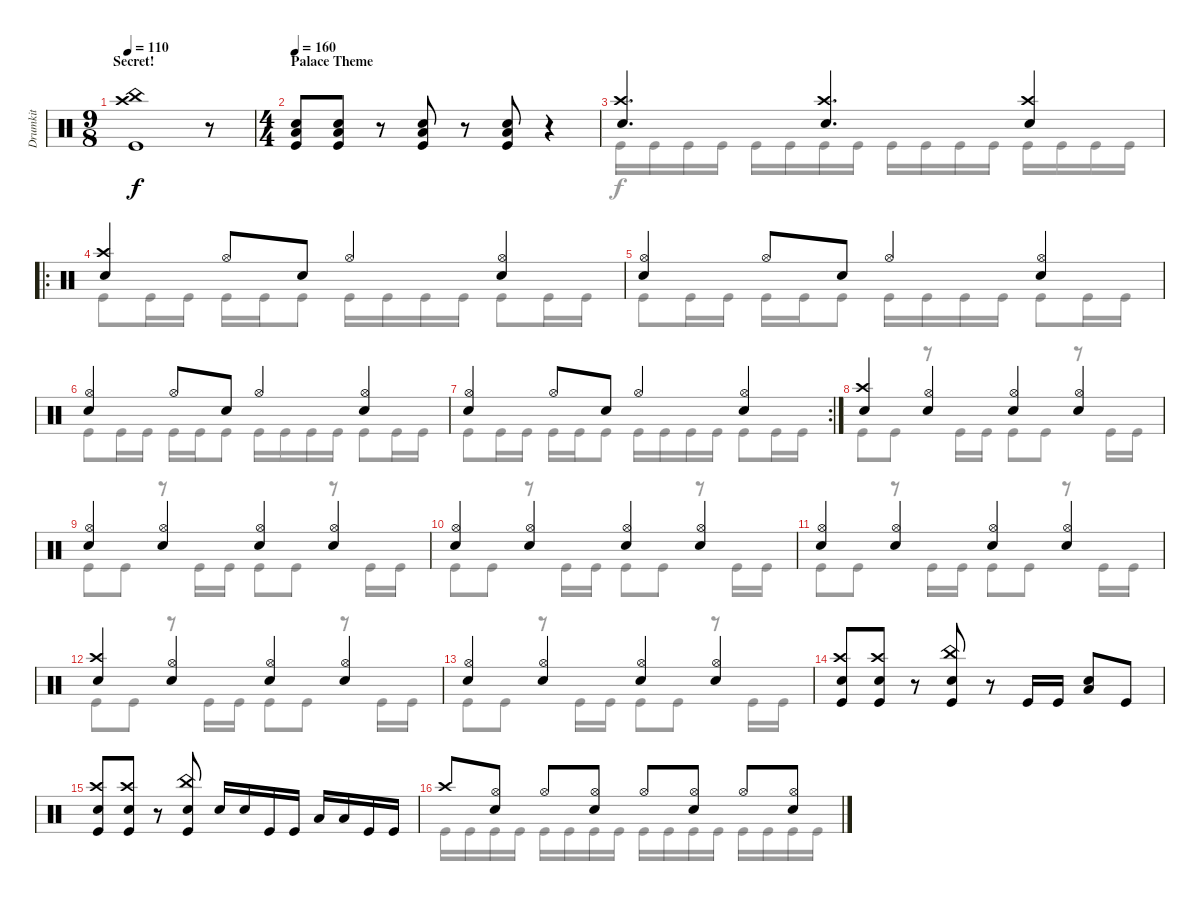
\track ("Drumkit" "Drumkit") {instrument percussion}
\staff {score}
\articulation defaults
\voice
\ts (9 8)
\section ("" "Secret!")
\tempo 110
\clef neutral
\ks c
("Kick (hit)" "Crash high (hit)" "China (hit)").1{dy f} r.8 |
\ts (4 4)
\section ("" "Palace Theme")
\tempo 160
("Kick (hit)" "Snare (hit) 2" "Low Floor Tom (hit)").8 ("Kick (hit)" "Snare (hit) 2" "Low Floor Tom (hit)").8 r.8 ("Kick (hit)" "Snare (hit) 2" "Low Floor Tom (hit)").8 r.8 ("Kick (hit)" "Snare (hit) 2" "Low Floor Tom (hit)").8 r.4 |
("Snare (hit) 2" "Crash high (hit)").4{d} ("Snare (hit) 2" "Crash high (hit)").4{d} ("Snare (hit) 2" "Crash high (hit)").4 |
\ro
("Crash high (hit)" "Snare (hit) 2").4 "Hi-Hat (open)".8 "Snare (hit) 2".8 "Hi-Hat (open)".4 ("Hi-Hat (open)" "Snare (hit) 2").4 |
("Hi-Hat (open)" "Snare (hit) 2").4 "Hi-Hat (open)".8 "Snare (hit) 2".8 "Hi-Hat (open)".4 ("Hi-Hat (open)" "Snare (hit) 2").4 |
("Hi-Hat (open)" "Snare (hit) 2").4 "Hi-Hat (open)".8 "Snare (hit) 2".8 "Hi-Hat (open)".4 ("Hi-Hat (open)" "Snare (hit) 2").4 |
\rc 2
("Hi-Hat (open)" "Snare (hit) 2").4 "Hi-Hat (open)".8 "Snare (hit) 2".8 "Hi-Hat (open)".4 ("Hi-Hat (open)" "Snare (hit) 2").4 |
("Snare (hit) 2" "Crash high (hit)").4 ("Snare (hit) 2" "Hi-Hat (open)").4 ("Snare (hit) 2" "Hi-Hat (open)").4 ("Snare (hit) 2" "Hi-Hat (open)").4 |
("Snare (hit) 2" "Hi-Hat (open)").4 ("Snare (hit) 2" "Hi-Hat (open)").4 ("Snare (hit) 2" "Hi-Hat (open)").4 ("Snare (hit) 2" "Hi-Hat (open)").4 |
("Snare (hit) 2" "Hi-Hat (open)").4 ("Snare (hit) 2" "Hi-Hat (open)").4 ("Snare (hit) 2" "Hi-Hat (open)").4 ("Snare (hit) 2" "Hi-Hat (open)").4 |
("Snare (hit) 2" "Hi-Hat (open)").4 ("Snare (hit) 2" "Hi-Hat (open)").4 ("Snare (hit) 2" "Hi-Hat (open)").4 ("Snare (hit) 2" "Hi-Hat (open)").4 |
("Snare (hit) 2" "Crash high (hit)").4 ("Snare (hit) 2" "Hi-Hat (open)").4 ("Snare (hit) 2" "Hi-Hat (open)").4 ("Snare (hit) 2" "Hi-Hat (open)").4 |
("Snare (hit) 2" "Hi-Hat (open)").4 ("Snare (hit) 2" "Hi-Hat (open)").4 ("Snare (hit) 2" "Hi-Hat (open)").4 ("Snare (hit) 2" "Hi-Hat (open)").4 |
("Snare (hit) 2" "Crash high (hit)" "Kick (hit)").8 ("Snare (hit) 2" "Crash high (hit)" "Kick (hit)").8 r.8 ("Snare (hit) 2" "China (hit)" "Kick (hit)").8 r.8 "Kick (hit)".16 "Kick (hit)".16 ("Snare (hit) 2" "Low Floor Tom (hit)").8 "Kick (hit)".8 |
("Snare (hit) 2" "Crash high (hit)" "Kick (hit)").8 ("Snare (hit) 2" "Crash high (hit)" "Kick (hit)").8 r.8 ("Snare (hit) 2" "China (hit)" "Kick (hit)").8 "Snare (hit) 2".16 "Snare (hit) 2".16 "Kick (hit)".16 "Kick (hit)".16 "Low Tom (hit)".16 "Low Tom (hit)".16 "Kick (hit)".16 "Kick (hit)".16 |
"Crash high (hit)".8 ("Snare (hit) 2" "Hi-Hat (open)").8 "Hi-Hat (open)".8 ("Snare (hit) 2" "Hi-Hat (open)").8 "Hi-Hat (open)".8 ("Snare (hit) 2" "Hi-Hat (open)").8 "Hi-Hat (open)".8 ("Snare (hit) 2" "Hi-Hat (open)").8
\voice
\clef neutral
\ottava regular
\simile none
\ks c
|
|
"Kick (hit)".16 "Kick (hit)".16 "Kick (hit)".16 "Kick (hit)".16 "Kick (hit)".16 "Kick (hit)".16 "Kick (hit)".16 "Kick (hit)".16 "Kick (hit)".16 "Kick (hit)".16 "Kick (hit)".16 "Kick (hit)".16 "Kick (hit)".16 "Kick (hit)".16 "Kick (hit)".16 "Kick (hit)".16 |
"Kick (hit)".8 "Kick (hit)".16 "Kick (hit)".16 "Kick (hit)".16 "Kick (hit)".16 "Kick (hit)".8 "Kick (hit)".16 "Kick (hit)".16 "Kick (hit)".16 "Kick (hit)".16 "Kick (hit)".8 "Kick (hit)".16 "Kick (hit)".16 |
"Kick (hit)".8 "Kick (hit)".16 "Kick (hit)".16 "Kick (hit)".16 "Kick (hit)".16 "Kick (hit)".8 "Kick (hit)".16 "Kick (hit)".16 "Kick (hit)".16 "Kick (hit)".16 "Kick (hit)".8 "Kick (hit)".16 "Kick (hit)".16 |
"Kick (hit)".8 "Kick (hit)".16 "Kick (hit)".16 "Kick (hit)".16 "Kick (hit)".16 "Kick (hit)".8 "Kick (hit)".16 "Kick (hit)".16 "Kick (hit)".16 "Kick (hit)".16 "Kick (hit)".8 "Kick (hit)".16 "Kick (hit)".16 |
"Kick (hit)".8 "Kick (hit)".16 "Kick (hit)".16 "Kick (hit)".16 "Kick (hit)".16 "Kick (hit)".8 "Kick (hit)".16 "Kick (hit)".16 "Kick (hit)".16 "Kick (hit)".16 "Kick (hit)".8 "Kick (hit)".16 "Kick (hit)".16 |
"Kick (hit)".8 "Kick (hit)".8 r.8 "Kick (hit)".16 "Kick (hit)".16 "Kick (hit)".8 "Kick (hit)".8 r.8 "Kick (hit)".16 "Kick (hit)".16 |
"Kick (hit)".8 "Kick (hit)".8 r.8 "Kick (hit)".16 "Kick (hit)".16 "Kick (hit)".8 "Kick (hit)".8 r.8 "Kick (hit)".16 "Kick (hit)".16 |
"Kick (hit)".8 "Kick (hit)".8 r.8 "Kick (hit)".16 "Kick (hit)".16 "Kick (hit)".8 "Kick (hit)".8 r.8 "Kick (hit)".16 "Kick (hit)".16 |
"Kick (hit)".8 "Kick (hit)".8 r.8 "Kick (hit)".16 "Kick (hit)".16 "Kick (hit)".8 "Kick (hit)".8 r.8 "Kick (hit)".16 "Kick (hit)".16 |
"Kick (hit)".8 "Kick (hit)".8 r.8 "Kick (hit)".16 "Kick (hit)".16 "Kick (hit)".8 "Kick (hit)".8 r.8 "Kick (hit)".16 "Kick (hit)".16 |
"Kick (hit)".8 "Kick (hit)".8 r.8 "Kick (hit)".16 "Kick (hit)".16 "Kick (hit)".8 "Kick (hit)".8 r.8 "Kick (hit)".16 "Kick (hit)".16 |
|
|
"Kick (hit)".16 "Kick (hit)".16 "Kick (hit)".16 "Kick (hit)".16 "Kick (hit)".16 "Kick (hit)".16 "Kick (hit)".16 "Kick (hit)".16 "Kick (hit)".16 "Kick (hit)".16 "Kick (hit)".16 "Kick (hit)".16 "Kick (hit)".16 "Kick (hit)".16 "Kick (hit)".16 "Kick (hit)".16
